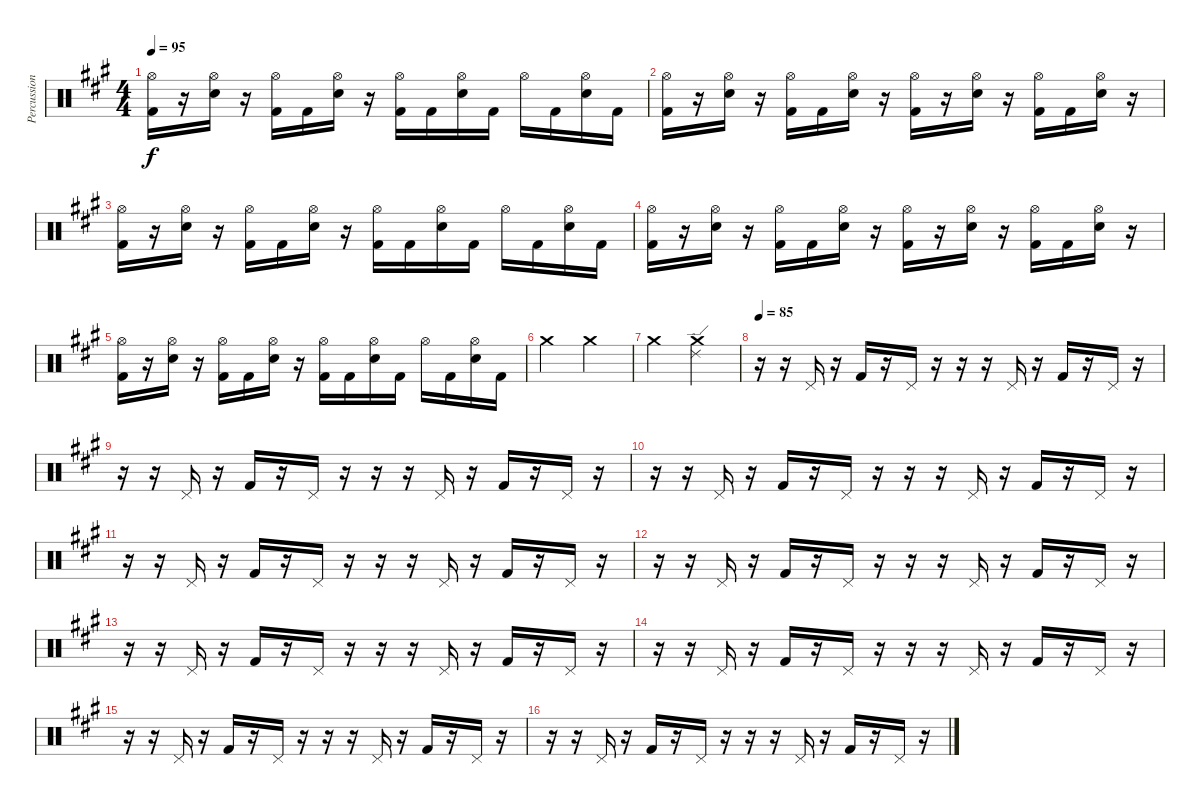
\track ("Percussion" "Percussion") {instrument percussion}
\staff {score}
\articulation defaults
\ts (4 4)
\tempo 95
\clef neutral
\ks a
("Hi-Hat (open)" "Kick (hit) 2").16{dy f} r.16 ("Hi-Hat (open)" "Electric Snare (hit)").16 r.16 ("Hi-Hat (open)" "Kick (hit) 2").16 "Kick (hit) 2".16 ("Hi-Hat (open)" "Electric Snare (hit)").16 r.16 ("Hi-Hat (open)" "Kick (hit) 2").16 "Kick (hit) 2".16 ("Hi-Hat (open)" "Electric Snare (hit)").16 "Kick (hit) 2".16 "Hi-Hat (open)".16 "Kick (hit) 2".16 ("Hi-Hat (open)" "Electric Snare (hit)").16 "Kick (hit) 2".16 |
("Hi-Hat (open)" "Kick (hit) 2").16 r.16 ("Hi-Hat (open)" "Electric Snare (hit)").16 r.16 ("Hi-Hat (open)" "Kick (hit) 2").16 "Kick (hit) 2".16 ("Hi-Hat (open)" "Electric Snare (hit)").16 r.16 ("Hi-Hat (open)" "Kick (hit) 2").16 r.16 ("Hi-Hat (open)" "Electric Snare (hit)").16 r.16 ("Hi-Hat (open)" "Kick (hit) 2").16 "Kick (hit) 2".16 ("Hi-Hat (open)" "Electric Snare (hit)").16 r.16 |
("Hi-Hat (open)" "Kick (hit) 2").16 r.16 ("Hi-Hat (open)" "Electric Snare (hit)").16 r.16 ("Hi-Hat (open)" "Kick (hit) 2").16 "Kick (hit) 2".16 ("Hi-Hat (open)" "Electric Snare (hit)").16 r.16 ("Hi-Hat (open)" "Kick (hit) 2").16 "Kick (hit) 2".16 ("Hi-Hat (open)" "Electric Snare (hit)").16 "Kick (hit) 2".16 "Hi-Hat (open)".16 "Kick (hit) 2".16 ("Hi-Hat (open)" "Electric Snare (hit)").16 "Kick (hit) 2".16 |
("Hi-Hat (open)" "Kick (hit) 2").16 r.16 ("Hi-Hat (open)" "Electric Snare (hit)").16 r.16 ("Hi-Hat (open)" "Kick (hit) 2").16 "Kick (hit) 2".16 ("Hi-Hat (open)" "Electric Snare (hit)").16 r.16 ("Hi-Hat (open)" "Kick (hit) 2").16 r.16 ("Hi-Hat (open)" "Electric Snare (hit)").16 r.16 ("Hi-Hat (open)" "Kick (hit) 2").16 "Kick (hit) 2".16 ("Hi-Hat (open)" "Electric Snare (hit)").16 r.16 |
("Hi-Hat (open)" "Kick (hit) 2").16 r.16 ("Hi-Hat (open)" "Electric Snare (hit)").16 r.16 ("Hi-Hat (open)" "Kick (hit) 2").16 "Kick (hit) 2".16 ("Hi-Hat (open)" "Electric Snare (hit)").16 r.16 ("Hi-Hat (open)" "Kick (hit) 2").16 "Kick (hit) 2".16 ("Hi-Hat (open)" "Electric Snare (hit)").16 "Kick (hit) 2".16 "Hi-Hat (open)".16 "Kick (hit) 2".16 ("Hi-Hat (open)" "Electric Snare (hit)").16 "Kick (hit) 2".16 |
"Crash medium (hit)".2 "Crash medium (hit)".2 |
"Crash medium (hit)".2 ("Ride (edge) 2" "Crash medium (hit)").2 |
\tempo 85
r.16 r.16 "Pedal Hi-Hat (hit)".16 r.16 "Kick (hit) 2".16 r.16 "Pedal Hi-Hat (hit)".16 r.16 r.16 r.16 "Pedal Hi-Hat (hit)".16 r.16 "Kick (hit) 2".16 r.16 "Pedal Hi-Hat (hit)".16 r.16 |
r.16 r.16 "Pedal Hi-Hat (hit)".16 r.16 "Kick (hit) 2".16 r.16 "Pedal Hi-Hat (hit)".16 r.16 r.16 r.16 "Pedal Hi-Hat (hit)".16 r.16 "Kick (hit) 2".16 r.16 "Pedal Hi-Hat (hit)".16 r.16 |
r.16 r.16 "Pedal Hi-Hat (hit)".16 r.16 "Kick (hit) 2".16 r.16 "Pedal Hi-Hat (hit)".16 r.16 r.16 r.16 "Pedal Hi-Hat (hit)".16 r.16 "Kick (hit) 2".16 r.16 "Pedal Hi-Hat (hit)".16 r.16 |
r.16 r.16 "Pedal Hi-Hat (hit)".16 r.16 "Kick (hit) 2".16 r.16 "Pedal Hi-Hat (hit)".16 r.16 r.16 r.16 "Pedal Hi-Hat (hit)".16 r.16 "Kick (hit) 2".16 r.16 "Pedal Hi-Hat (hit)".16 r.16 |
r.16 r.16 "Pedal Hi-Hat (hit)".16 r.16 "Kick (hit) 2".16 r.16 "Pedal Hi-Hat (hit)".16 r.16 r.16 r.16 "Pedal Hi-Hat (hit)".16 r.16 "Kick (hit) 2".16 r.16 "Pedal Hi-Hat (hit)".16 r.16 |
r.16 r.16 "Pedal Hi-Hat (hit)".16 r.16 "Kick (hit) 2".16 r.16 "Pedal Hi-Hat (hit)".16 r.16 r.16 r.16 "Pedal Hi-Hat (hit)".16 r.16 "Kick (hit) 2".16 r.16 "Pedal Hi-Hat (hit)".16 r.16 |
r.16 r.16 "Pedal Hi-Hat (hit)".16 r.16 "Kick (hit) 2".16 r.16 "Pedal Hi-Hat (hit)".16 r.16 r.16 r.16 "Pedal Hi-Hat (hit)".16 r.16 "Kick (hit) 2".16 r.16 "Pedal Hi-Hat (hit)".16 r.16 |
r.16 r.16 "Pedal Hi-Hat (hit)".16 r.16 "Kick (hit) 2".16 r.16 "Pedal Hi-Hat (hit)".16 r.16 r.16 r.16 "Pedal Hi-Hat (hit)".16 r.16 "Kick (hit) 2".16 r.16 "Pedal Hi-Hat (hit)".16 r.16 |
r.16 r.16 "Pedal Hi-Hat (hit)".16 r.16 "Kick (hit) 2".16 r.16 "Pedal Hi-Hat (hit)".16 r.16 r.16 r.16 "Pedal Hi-Hat (hit)".16 r.16 "Kick (hit) 2".16 r.16 "Pedal Hi-Hat (hit)".16 r.16
